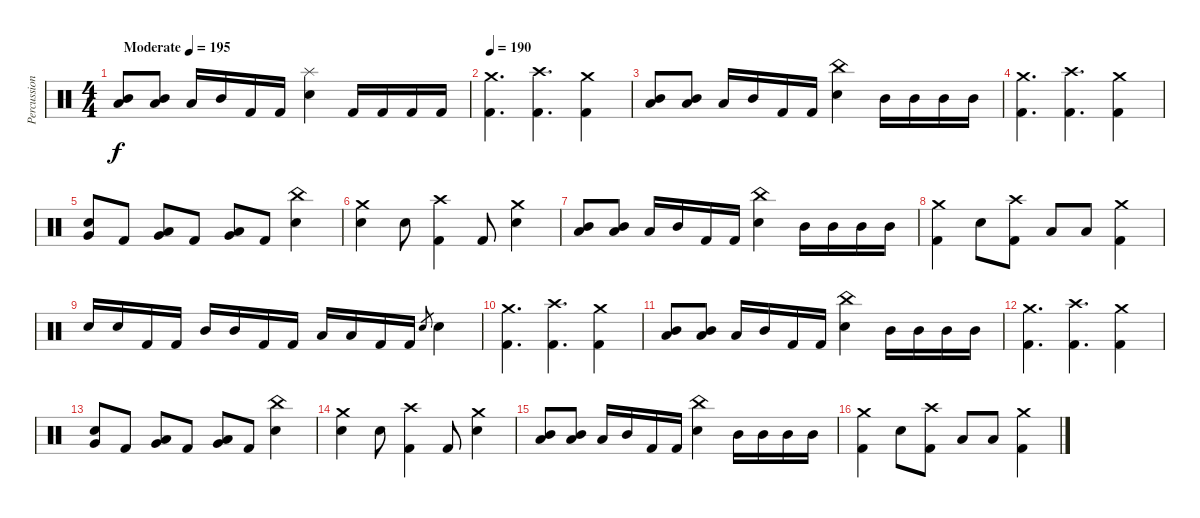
\track ("Percussion" "Percussion") {instrument percussion}
\staff {score}
\articulation defaults
\ts (4 4)
\tempo (195 "Moderate")
\clef neutral
\ks c
("Mid Tom (hit)" "Low Tom (hit)").8{dy f} ("Mid Tom (hit)" "Low Tom (hit)").8 "Low Tom (hit)".16 "Mid Tom (hit)".16 "Kick (hit) 2".16 "Kick (hit) 2".16 ("Splash (hit)" "Electric Snare (hit)").4 "Kick (hit) 2".16 "Kick (hit) 2".16 "Kick (hit) 2".16 "Kick (hit) 2".16 |
\tempo 190
("Crash medium (hit)" "Kick (hit) 2").4{d} ("Crash high (hit)" "Kick (hit) 2").4{d} ("Crash medium (hit)" "Kick (hit) 2").4 |
("Mid Tom (hit)" "Low Tom (hit)").8 ("Mid Tom (hit)" "Low Tom (hit)").8 "Low Tom (hit)".16 "Mid Tom (hit)".16 "Kick (hit) 2".16 "Kick (hit) 2".16 ("China (hit)" "Electric Snare (hit)").4 "Mid Tom (hit)".16 "Mid Tom (hit)".16 "Mid Tom (hit)".16 "Mid Tom (hit)".16 |
("Crash medium (hit)" "Kick (hit) 2").4{d} ("Crash high (hit)" "Kick (hit) 2").4{d} ("Crash medium (hit)" "Kick (hit) 2").4 |
("Very Low Tom (hit)" "Electric Snare (hit)").8 "Kick (hit) 2".8 ("Low Tom (hit)" "Very Low Tom (hit)").8 "Kick (hit) 2".8 ("Low Tom (hit)" "Very Low Tom (hit)").8 "Kick (hit) 2".8 ("China (hit)" "Electric Snare (hit)").4 |
("Crash medium (hit)" "Electric Snare (hit)").4 "Electric Snare (hit)".8 ("Crash high (hit)" "Kick (hit) 2").4 "Kick (hit) 2".8 ("Crash medium (hit)" "Electric Snare (hit)").4 |
("Mid Tom (hit)" "Low Tom (hit)").8 ("Mid Tom (hit)" "Low Tom (hit)").8 "Low Tom (hit)".16 "Mid Tom (hit)".16 "Kick (hit) 2".16 "Kick (hit) 2".16 ("China (hit)" "Electric Snare (hit)").4 "Mid Tom (hit)".16 "Mid Tom (hit)".16 "Mid Tom (hit)".16 "Mid Tom (hit)".16 |
("Crash medium (hit)" "Kick (hit) 2").4 "Electric Snare (hit)".8 ("Crash high (hit)" "Kick (hit) 2").8 "Low Tom (hit)".8 "Low Tom (hit)".8 ("Crash medium (hit)" "Kick (hit) 2").4 |
"Electric Snare (hit)".16 "Electric Snare (hit)".16 "Kick (hit) 2".16 "Kick (hit) 2".16 "Mid Tom (hit)".16 "Mid Tom (hit)".16 "Kick (hit) 2".16 "Kick (hit) 2".16 "Low Tom (hit)".16 "Low Tom (hit)".16 "Kick (hit) 2".16 "Kick (hit) 2".16 "Electric Snare (hit)".8{gr} "Electric Snare (hit)".4 |
("Crash medium (hit)" "Kick (hit) 2").4{d} ("Crash high (hit)" "Kick (hit) 2").4{d} ("Crash medium (hit)" "Kick (hit) 2").4 |
("Mid Tom (hit)" "Low Tom (hit)").8 ("Mid Tom (hit)" "Low Tom (hit)").8 "Low Tom (hit)".16 "Mid Tom (hit)".16 "Kick (hit) 2".16 "Kick (hit) 2".16 ("China (hit)" "Electric Snare (hit)").4 "Mid Tom (hit)".16 "Mid Tom (hit)".16 "Mid Tom (hit)".16 "Mid Tom (hit)".16 |
("Crash medium (hit)" "Kick (hit) 2").4{d} ("Crash high (hit)" "Kick (hit) 2").4{d} ("Crash medium (hit)" "Kick (hit) 2").4 |
("Very Low Tom (hit)" "Electric Snare (hit)").8 "Kick (hit) 2".8 ("Low Tom (hit)" "Very Low Tom (hit)").8 "Kick (hit) 2".8 ("Low Tom (hit)" "Very Low Tom (hit)").8 "Kick (hit) 2".8 ("China (hit)" "Electric Snare (hit)").4 |
("Crash medium (hit)" "Electric Snare (hit)").4 "Electric Snare (hit)".8 ("Crash high (hit)" "Kick (hit) 2").4 "Kick (hit) 2".8 ("Crash medium (hit)" "Electric Snare (hit)").4 |
("Mid Tom (hit)" "Low Tom (hit)").8 ("Mid Tom (hit)" "Low Tom (hit)").8 "Low Tom (hit)".16 "Mid Tom (hit)".16 "Kick (hit) 2".16 "Kick (hit) 2".16 ("China (hit)" "Electric Snare (hit)").4 "Mid Tom (hit)".16 "Mid Tom (hit)".16 "Mid Tom (hit)".16 "Mid Tom (hit)".16 |
("Crash medium (hit)" "Kick (hit) 2").4 "Electric Snare (hit)".8 ("Crash high (hit)" "Kick (hit) 2").8 "Low Tom (hit)".8 "Low Tom (hit)".8 ("Crash medium (hit)" "Kick (hit) 2").4
